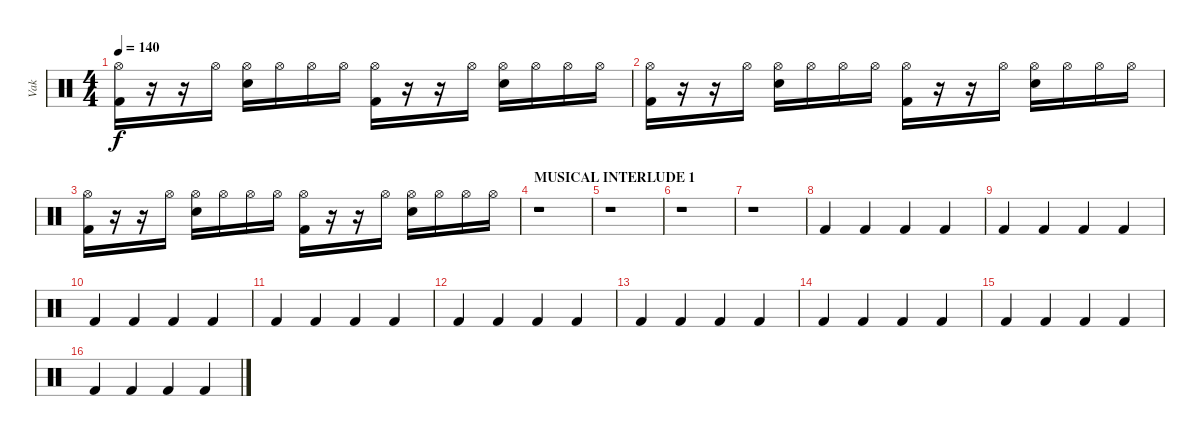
\track ("Vak" "Vak") {instrument percussion}
\staff {score}
\articulation defaults
\ts (4 4)
\tempo 140
\clef neutral
\ks c
("Hi-Hat (open)" "Kick (hit) 2").16{dy f} r.16 r.16 "Hi-Hat (open)".16 ("Hi-Hat (open)" "Snare (hit) 2").16 "Hi-Hat (open)".16 "Hi-Hat (open)".16 "Hi-Hat (open)".16 ("Hi-Hat (open)" "Kick (hit) 2").16 r.16 r.16 "Hi-Hat (open)".16 ("Hi-Hat (open)" "Snare (hit) 2").16 "Hi-Hat (open)".16 "Hi-Hat (open)".16 "Hi-Hat (open)".16 |
("Hi-Hat (open)" "Kick (hit) 2").16 r.16 r.16 "Hi-Hat (open)".16 ("Hi-Hat (open)" "Snare (hit) 2").16 "Hi-Hat (open)".16 "Hi-Hat (open)".16 "Hi-Hat (open)".16 ("Hi-Hat (open)" "Kick (hit) 2").16 r.16 r.16 "Hi-Hat (open)".16 ("Hi-Hat (open)" "Snare (hit) 2").16 "Hi-Hat (open)".16 "Hi-Hat (open)".16 "Hi-Hat (open)".16 |
("Hi-Hat (open)" "Kick (hit) 2").16 r.16 r.16 "Hi-Hat (open)".16 ("Hi-Hat (open)" "Snare (hit) 2").16 "Hi-Hat (open)".16 "Hi-Hat (open)".16 "Hi-Hat (open)".16 ("Hi-Hat (open)" "Kick (hit) 2").16 r.16 r.16 "Hi-Hat (open)".16 ("Hi-Hat (open)" "Snare (hit) 2").16 "Hi-Hat (open)".16 "Hi-Hat (open)".16 "Hi-Hat (open)".16 |
\section ("" "MUSICAL INTERLUDE 1")
r.1 |
r.1 |
r.1 |
r.1 |
"Kick (hit) 2".4 "Kick (hit) 2".4 "Kick (hit) 2".4 "Kick (hit) 2".4 |
"Kick (hit) 2".4 "Kick (hit) 2".4 "Kick (hit) 2".4 "Kick (hit) 2".4 |
"Kick (hit) 2".4 "Kick (hit) 2".4 "Kick (hit) 2".4 "Kick (hit) 2".4 |
"Kick (hit) 2".4 "Kick (hit) 2".4 "Kick (hit) 2".4 "Kick (hit) 2".4 |
"Kick (hit) 2".4 "Kick (hit) 2".4 "Kick (hit) 2".4 "Kick (hit) 2".4 |
"Kick (hit) 2".4 "Kick (hit) 2".4 "Kick (hit) 2".4 "Kick (hit) 2".4 |
"Kick (hit) 2".4 "Kick (hit) 2".4 "Kick (hit) 2".4 "Kick (hit) 2".4 |
"Kick (hit) 2".4 "Kick (hit) 2".4 "Kick (hit) 2".4 "Kick (hit) 2".4 |
"Kick (hit) 2".4 "Kick (hit) 2".4 "Kick (hit) 2".4 "Kick (hit) 2".4
